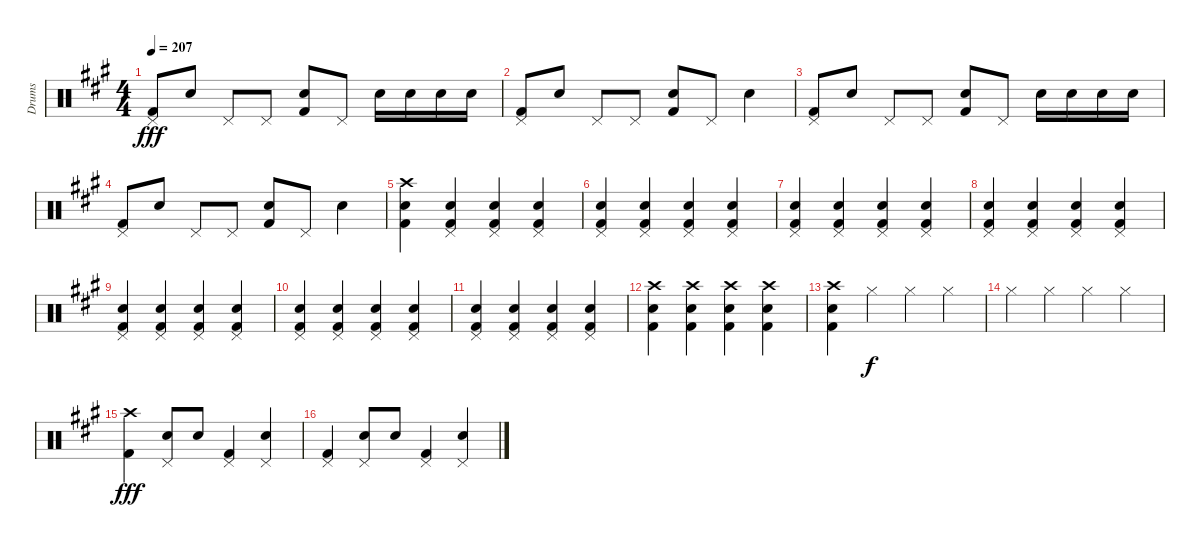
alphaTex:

\track ("Drums" "Drums") {instrument percussion}
\staff {score}
\articulation defaults
\ts (4 4)
\tempo 207
\clef neutral
\ks a
("Pedal Hi-Hat (hit)" "Kick (hit) 2").8{dy fff} "Snare (hit) 2".8 "Pedal Hi-Hat (hit)".8 "Pedal Hi-Hat (hit)".8 ("Snare (hit) 2" "Kick (hit) 2").8 "Pedal Hi-Hat (hit)".8 "Snare (hit) 2".16 "Snare (hit) 2".16 "Snare (hit) 2".16 "Snare (hit) 2".16 |
("Pedal Hi-Hat (hit)" "Kick (hit) 2").8 "Snare (hit) 2".8 "Pedal Hi-Hat (hit)".8 "Pedal Hi-Hat (hit)".8 ("Snare (hit) 2" "Kick (hit) 2").8 "Pedal Hi-Hat (hit)".8 "Snare (hit) 2".4 |
("Pedal Hi-Hat (hit)" "Kick (hit) 2").8 "Snare (hit) 2".8 "Pedal Hi-Hat (hit)".8 "Pedal Hi-Hat (hit)".8 ("Snare (hit) 2" "Kick (hit) 2").8 "Pedal Hi-Hat (hit)".8 "Snare (hit) 2".16 "Snare (hit) 2".16 "Snare (hit) 2".16 "Snare (hit) 2".16 |
("Pedal Hi-Hat (hit)" "Kick (hit) 2").8 "Snare (hit) 2".8 "Pedal Hi-Hat (hit)".8 "Pedal Hi-Hat (hit)".8 ("Snare (hit) 2" "Kick (hit) 2").8 "Pedal Hi-Hat (hit)".8 "Snare (hit) 2".4 |
("Crash high (hit)" "Snare (hit) 2" "Kick (hit) 2").4 ("Pedal Hi-Hat (hit)" "Snare (hit) 2" "Kick (hit) 2").4 ("Pedal Hi-Hat (hit)" "Snare (hit) 2" "Kick (hit) 2").4 ("Pedal Hi-Hat (hit)" "Snare (hit) 2" "Kick (hit) 2").4 |
("Pedal Hi-Hat (hit)" "Snare (hit) 2" "Kick (hit) 2").4 ("Pedal Hi-Hat (hit)" "Snare (hit) 2" "Kick (hit) 2").4 ("Pedal Hi-Hat (hit)" "Snare (hit) 2" "Kick (hit) 2").4 ("Pedal Hi-Hat (hit)" "Snare (hit) 2" "Kick (hit) 2").4 |
("Pedal Hi-Hat (hit)" "Snare (hit) 2" "Kick (hit) 2").4 ("Pedal Hi-Hat (hit)" "Snare (hit) 2" "Kick (hit) 2").4 ("Pedal Hi-Hat (hit)" "Snare (hit) 2" "Kick (hit) 2").4 ("Pedal Hi-Hat (hit)" "Snare (hit) 2" "Kick (hit) 2").4 |
("Pedal Hi-Hat (hit)" "Snare (hit) 2" "Kick (hit) 2").4 ("Pedal Hi-Hat (hit)" "Snare (hit) 2" "Kick (hit) 2").4 ("Pedal Hi-Hat (hit)" "Snare (hit) 2" "Kick (hit) 2").4 ("Pedal Hi-Hat (hit)" "Snare (hit) 2" "Kick (hit) 2").4 |
("Pedal Hi-Hat (hit)" "Snare (hit) 2" "Kick (hit) 2").4 ("Pedal Hi-Hat (hit)" "Snare (hit) 2" "Kick (hit) 2").4 ("Pedal Hi-Hat (hit)" "Snare (hit) 2" "Kick (hit) 2").4 ("Pedal Hi-Hat (hit)" "Snare (hit) 2" "Kick (hit) 2").4 |
("Pedal Hi-Hat (hit)" "Snare (hit) 2" "Kick (hit) 2").4 ("Pedal Hi-Hat (hit)" "Snare (hit) 2" "Kick (hit) 2").4 ("Pedal Hi-Hat (hit)" "Snare (hit) 2" "Kick (hit) 2").4 ("Pedal Hi-Hat (hit)" "Snare (hit) 2" "Kick (hit) 2").4 |
("Pedal Hi-Hat (hit)" "Snare (hit) 2" "Kick (hit) 2").4 ("Pedal Hi-Hat (hit)" "Snare (hit) 2" "Kick (hit) 2").4 ("Pedal Hi-Hat (hit)" "Snare (hit) 2" "Kick (hit) 2").4 ("Pedal Hi-Hat (hit)" "Snare (hit) 2" "Kick (hit) 2").4 |
("Crash high (hit)" "Snare (hit) 2" "Kick (hit) 2").4 ("Crash high (hit)" "Snare (hit) 2" "Kick (hit) 2").4 ("Crash high (hit)" "Snare (hit) 2" "Kick (hit) 2").4 ("Crash high (hit)" "Snare (hit) 2" "Kick (hit) 2").4 |
("Crash high (hit)" "Snare (hit) 2" "Kick (hit) 2").4 "Hi-Hat (closed)".4{dy f} "Hi-Hat (closed)".4 "Hi-Hat (closed)".4 |
"Hi-Hat (closed)".4 "Hi-Hat (closed)".4 "Hi-Hat (closed)".4 "Hi-Hat (closed)".4 |
("Crash high (hit)" "Kick (hit) 2").4{dy fff} ("Pedal Hi-Hat (hit)" "Snare (hit) 2").8 "Snare (hit) 2".8 ("Pedal Hi-Hat (hit)" "Kick (hit) 2").4 ("Pedal Hi-Hat (hit)" "Snare (hit) 2").4 |
("Pedal Hi-Hat (hit)" "Kick (hit) 2").4 ("Pedal Hi-Hat (hit)" "Snare (hit) 2").8 "Snare (hit) 2".8 ("Pedal Hi-Hat (hit)" "Kick (hit) 2").4 ("Pedal Hi-Hat (hit)" "Snare (hit) 2").4
